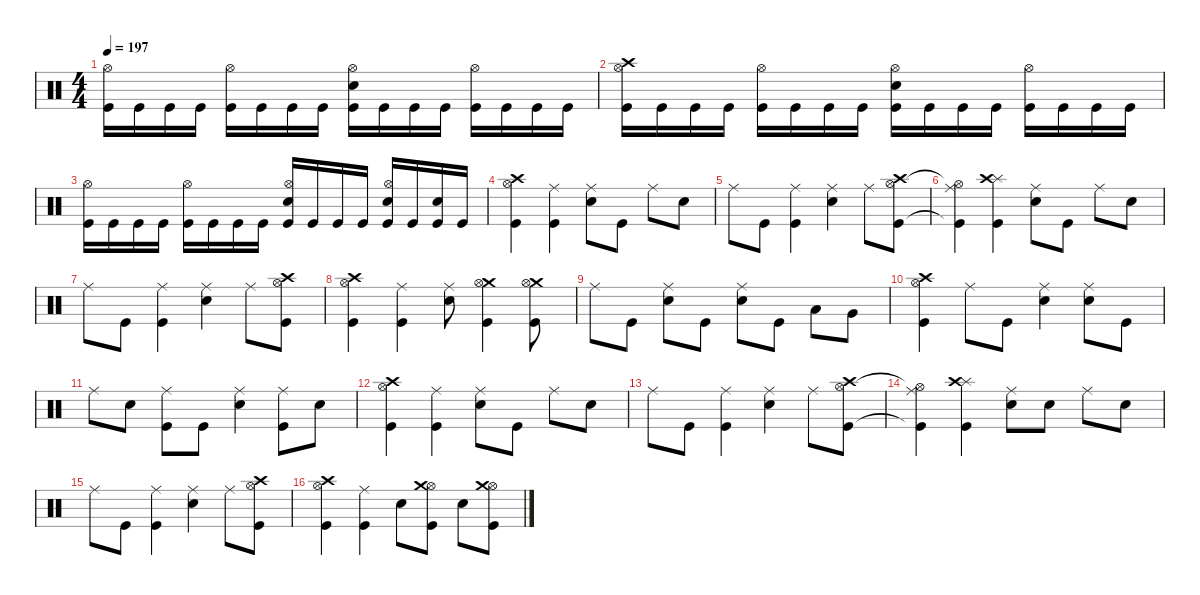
\defaultSystemsLayout 4
\hideDynamics
\bracketExtendMode nobrackets
\singleTrackTrackNamePolicy hidden
\multiTrackTrackNamePolicy hidden
\firstSystemTrackNameMode fullname
\firstSystemTrackNameOrientation horizontal
\otherSystemsTrackNameOrientation horizontal
\track ("Drums" "drm.") {defaultSystemsLayout 4 instrument percussion}
\staff {score}
\articulation defaults
\ts (4 4)
\tempo 197
\clef neutral
\ks c
("Hi-Hat (open)" "Kick (hit)").16{dy f beam Down} "Kick (hit)".16{beam Down} "Kick (hit)".16{beam Down} "Kick (hit)".16{beam Down} ("Hi-Hat (open)" "Kick (hit)").16{beam Down} "Kick (hit)".16{beam Down} "Kick (hit)".16{beam Down} "Kick (hit)".16{beam Down} ("Hi-Hat (open)" "Snare (hit) 2" "Kick (hit)").16{beam Down} "Kick (hit)".16{beam Down} "Kick (hit)".16{beam Down} "Kick (hit)".16{beam Down} ("Hi-Hat (open)" "Kick (hit)").16{beam Down} "Kick (hit)".16{beam Down} "Kick (hit)".16{beam Down} "Kick (hit)".16{beam Down} |
("Crash high (hit)" "Hi-Hat (open)" "Kick (hit)").16{beam Down} "Kick (hit)".16{beam Down} "Kick (hit)".16{beam Down} "Kick (hit)".16{beam Down} ("Hi-Hat (open)" "Kick (hit)").16{beam Down} "Kick (hit)".16{beam Down} "Kick (hit)".16{beam Down} "Kick (hit)".16{beam Down} ("Hi-Hat (open)" "Snare (hit) 2" "Kick (hit)").16{beam Down} "Kick (hit)".16{beam Down} "Kick (hit)".16{beam Down} "Kick (hit)".16{beam Down} ("Hi-Hat (open)" "Kick (hit)").16{beam Down} "Kick (hit)".16{beam Down} "Kick (hit)".16{beam Down} "Kick (hit)".16{beam Down} |
("Hi-Hat (open)" "Kick (hit)").16{beam Down} "Kick (hit)".16{beam Down} "Kick (hit)".16{beam Down} "Kick (hit)".16{beam Down} ("Hi-Hat (open)" "Kick (hit)").16{beam Down} "Kick (hit)".16{beam Down} "Kick (hit)".16{beam Down} "Kick (hit)".16{beam Down} ("Hi-Hat (open)" "Snare (hit) 2" "Kick (hit)").16{beam Up} "Kick (hit)".16{beam Up} "Kick (hit)".16{beam Up} "Kick (hit)".16{beam Up} ("Hi-Hat (open)" "Snare (hit) 2" "Kick (hit)").16{beam Up} "Kick (hit)".16{beam Up} ("Snare (hit) 2" "Kick (hit)").16{beam Up} "Kick (hit)".16{beam Up} |
("Hi-Hat (open)" "Crash high (hit)" "Kick (hit)").4{beam Down} ("Ride (middle)" "Kick (hit)").4{beam Down} ("Ride (middle)" "Snare (hit) 2").8{beam Down} "Kick (hit)".8{beam Down} "Ride (middle)".8{beam Down} "Snare (hit) 2".8{beam Down} |
"Ride (middle)".8{beam Down} "Kick (hit)".8{beam Down} ("Ride (middle)" "Kick (hit)").4{beam Down} ("Ride (middle)" "Snare (hit) 2").4{beam Down} "Ride (middle)".8{beam Down} ("Crash high (hit)" "Hi-Hat (open)" "Kick (hit)").8{beam Down} |
("Ride (middle)" "Hi-Hat (open)"{t} "Kick (hit)"{t}).4{beam Down} ("Splash (hit)" "Crash high (hit)" "Kick (hit)").4{beam Down} ("Ride (middle)" "Snare (hit) 2").8{beam Down} "Kick (hit)".8{beam Down} "Ride (middle)".8{beam Down} "Snare (hit) 2".8{beam Down} |
"Ride (middle)".8{beam Down} "Kick (hit)".8{beam Down} ("Ride (middle)" "Kick (hit)").4{beam Down} ("Ride (middle)" "Snare (hit) 2").4{beam Down} "Ride (middle)".8{beam Down} ("Crash high (hit)" "Hi-Hat (open)" "Kick (hit)").8{beam Down} |
("Hi-Hat (open)" "Crash high (hit)" "Kick (hit)").4{beam Down} ("Ride (middle)" "Kick (hit)").4{beam Down} ("Ride (middle)" "Snare (hit) 2").8{beam Down} ("Crash medium (hit)" "Hi-Hat (open)" "Kick (hit)").4{beam Down} ("Crash medium (hit)" "Hi-Hat (open)" "Kick (hit)").8{beam Down} |
"Ride (middle)".8{beam Down} "Kick (hit)".8{beam Down} ("Ride (middle)" "Snare (hit) 2").8{beam Down} "Kick (hit)".8{beam Down} ("Ride (middle)" "Snare (hit) 2").8{beam Down} "Kick (hit)".8{beam Down} "Low Tom (hit)".8{beam Down} "Very Low Tom (hit)".8{beam Up} |
("Hi-Hat (open)" "Crash high (hit)" "Kick (hit)").4{beam Down} "Ride (middle)".8{beam Down} "Kick (hit)".8{beam Down} ("Ride (middle)" "Snare (hit) 2").4{beam Down} ("Ride (middle)" "Snare (hit) 2").8{beam Down} "Kick (hit)".8{beam Down} |
"Ride (middle)".8{beam Down} "Snare (hit) 2".8{beam Down} ("Ride (middle)" "Kick (hit)").8{beam Down} "Kick (hit)".8{beam Down} ("Ride (middle)" "Snare (hit) 2").4{beam Down} ("Ride (middle)" "Kick (hit)").8{beam Down} "Snare (hit) 2".8{beam Down} |
("Hi-Hat (open)" "Crash high (hit)" "Kick (hit)").4{beam Down} ("Ride (middle)" "Kick (hit)").4{beam Down} ("Ride (middle)" "Snare (hit) 2").8{beam Down} "Kick (hit)".8{beam Down} "Ride (middle)".8{beam Down} "Snare (hit) 2".8{beam Down} |
"Ride (middle)".8{beam Down} "Kick (hit)".8{beam Down} ("Ride (middle)" "Kick (hit)").4{beam Down} ("Ride (middle)" "Snare (hit) 2").4{beam Down} "Ride (middle)".8{beam Down} ("Crash high (hit)" "Hi-Hat (open)" "Kick (hit)").8{beam Down} |
("Ride (middle)" "Hi-Hat (open)"{t} "Kick (hit)"{t}).4{beam Down} ("Splash (hit)" "Crash high (hit)" "Kick (hit)").4{beam Down} ("Ride (middle)" "Snare (hit) 2").8{beam Down} "Snare (hit) 2".8{beam Down} "Ride (middle)".8{beam Down} "Snare (hit) 2".8{beam Down} |
"Ride (middle)".8{beam Down} "Kick (hit)".8{beam Down} ("Ride (middle)" "Kick (hit)").4{beam Down} ("Ride (middle)" "Snare (hit) 2").4{beam Down} "Ride (middle)".8{beam Down} ("Crash high (hit)" "Hi-Hat (open)" "Kick (hit)").8{beam Down} |
("Hi-Hat (open)" "Crash high (hit)" "Kick (hit)").4{beam Down} ("Ride (middle)" "Kick (hit)").4{beam Down} "Snare (hit) 2".8{beam Down} ("Hi-Hat (open)" "Crash medium (hit)" "Kick (hit)").8{beam Down} "Snare (hit) 2".8{beam Down} ("Hi-Hat (open)" "Crash medium (hit)" "Kick (hit)").8{beam Down}
